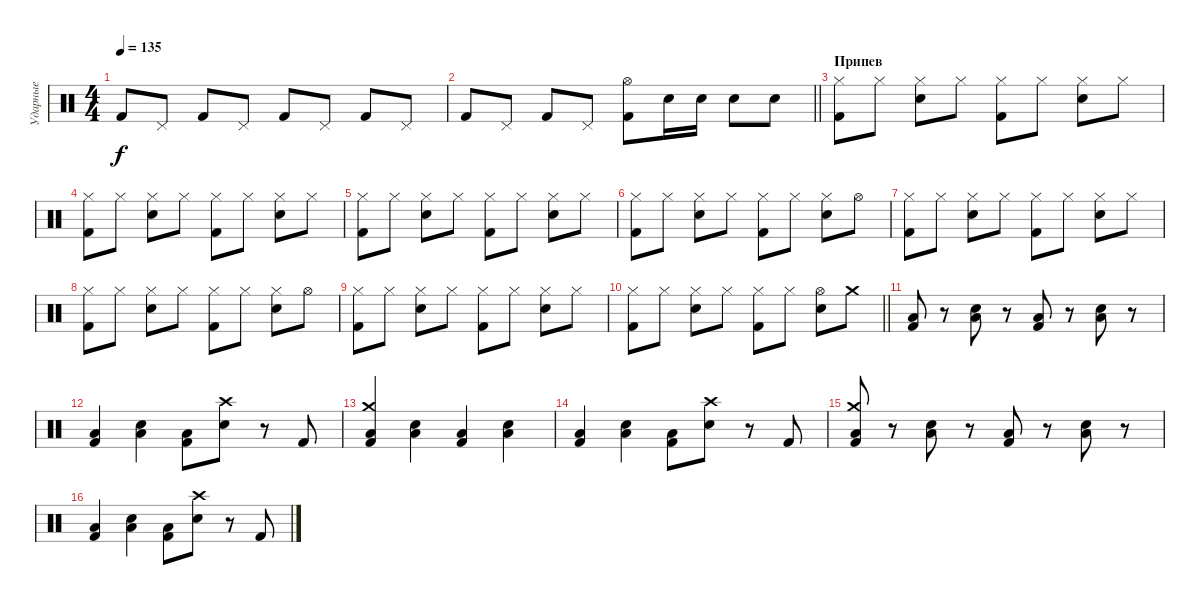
\track ("Ударные" "Ударные") {instrument percussion}
\staff {score}
\articulation defaults
\ts (4 4)
\tempo 135
\clef neutral
\ks c "Kick (hit) 2".8{dy f} "Pedal Hi-Hat (hit)".8 "Kick (hit) 2".8 "Pedal Hi-Hat (hit)".8 "Kick (hit) 2".8 "Pedal Hi-Hat (hit)".8 "Kick (hit) 2".8 "Pedal Hi-Hat (hit)".8
|
\barLineRight lightlight "Kick (hit) 2".8 "Pedal Hi-Hat (hit)".8 "Kick (hit) 2".8 "Pedal Hi-Hat (hit)".8
("Hi-Hat (open)" "Kick (hit) 2").8 "Electric Snare (hit)".16 "Electric Snare (hit)".16 "Electric Snare (hit)".8 "Electric Snare (hit)".8 |
\section ("" "Припев")
("Hi-Hat (closed)" "Kick (hit) 2").8 "Hi-Hat (closed)".8 ("Hi-Hat (closed)" "Electric Snare (hit)").8 "Hi-Hat (closed)".8 ("Hi-Hat (closed)" "Kick (hit) 2").8 "Hi-Hat (closed)".8 ("Hi-Hat (closed)" "Electric Snare (hit)").8 "Hi-Hat (closed)".8 |
("Hi-Hat (closed)" "Kick (hit) 2").8 "Hi-Hat (closed)".8 ("Hi-Hat (closed)" "Electric Snare (hit)").8 "Hi-Hat (closed)".8 ("Hi-Hat (closed)" "Kick (hit) 2").8 "Hi-Hat (closed)".8 ("Hi-Hat (closed)" "Electric Snare (hit)").8 "Hi-Hat (closed)".8 |
("Hi-Hat (closed)" "Kick (hit) 2").8 "Hi-Hat (closed)".8 ("Hi-Hat (closed)" "Electric Snare (hit)").8 "Hi-Hat (closed)".8 ("Hi-Hat (closed)" "Kick (hit) 2").8 "Hi-Hat (closed)".8 ("Hi-Hat (closed)" "Electric Snare (hit)").8 "Hi-Hat (closed)".8 |
("Hi-Hat (closed)" "Kick (hit) 2").8 "Hi-Hat (closed)".8 ("Hi-Hat (closed)" "Electric Snare (hit)").8 "Hi-Hat (closed)".8 ("Hi-Hat (closed)" "Kick (hit) 2").8 "Hi-Hat (closed)".8 ("Hi-Hat (closed)" "Electric Snare (hit)").8 "Hi-Hat (open)".8 |
("Hi-Hat (closed)" "Kick (hit) 2").8 "Hi-Hat (closed)".8 ("Hi-Hat (closed)" "Electric Snare (hit)").8 "Hi-Hat (closed)".8 ("Hi-Hat (closed)" "Kick (hit) 2").8 "Hi-Hat (closed)".8 ("Hi-Hat (closed)" "Electric Snare (hit)").8 "Hi-Hat (closed)".8 |
("Hi-Hat (closed)" "Kick (hit) 2").8 "Hi-Hat (closed)".8 ("Hi-Hat (closed)" "Electric Snare (hit)").8 "Hi-Hat (closed)".8 ("Hi-Hat (closed)" "Kick (hit) 2").8 "Hi-Hat (closed)".8 ("Hi-Hat (closed)" "Electric Snare (hit)").8 "Hi-Hat (open)".8 |
("Hi-Hat (closed)" "Kick (hit) 2").8 "Hi-Hat (closed)".8 ("Hi-Hat (closed)" "Electric Snare (hit)").8 "Hi-Hat (closed)".8 ("Hi-Hat (closed)" "Kick (hit) 2").8 "Hi-Hat (closed)".8 ("Hi-Hat (closed)" "Electric Snare (hit)").8 "Hi-Hat (closed)".8 |
\barLineRight lightlight
("Hi-Hat (closed)" "Kick (hit) 2").8 "Hi-Hat (closed)".8 ("Hi-Hat (closed)" "Electric Snare (hit)").8 "Hi-Hat (closed)".8 ("Hi-Hat (closed)" "Kick (hit) 2").8 "Hi-Hat (closed)".8 ("Hi-Hat (open)" "Electric Snare (hit)").8 "Crash medium (hit)".8 |
\section ("" "")
("Low Floor Tom (hit)" "Kick (hit) 2").8 r.8 ("Low Floor Tom (hit)" "Electric Snare (hit)").8 r.8 ("Low Floor Tom (hit)" "Kick (hit) 2").8 r.8 ("Low Floor Tom (hit)" "Electric Snare (hit)").8 r.8 |
("Low Floor Tom (hit)" "Kick (hit) 2").4 ("Low Floor Tom (hit)" "Electric Snare (hit)").4 ("Low Floor Tom (hit)" "Kick (hit) 2").8 ("Crash high (hit)" "Electric Snare (hit)").8 r.8 "Kick (hit) 2".8 |
("Crash medium (hit)" "Low Floor Tom (hit)" "Kick (hit) 2").4 ("Low Floor Tom (hit)" "Electric Snare (hit)").4 ("Low Floor Tom (hit)" "Kick (hit) 2").4 ("Low Floor Tom (hit)" "Electric Snare (hit)").4 |
("Low Floor Tom (hit)" "Kick (hit) 2").4 ("Low Floor Tom (hit)" "Electric Snare (hit)").4 ("Low Floor Tom (hit)" "Kick (hit) 2").8 ("Crash high (hit)" "Electric Snare (hit)").8 r.8 "Kick (hit) 2".8 |
("Crash medium (hit)" "Low Floor Tom (hit)" "Kick (hit) 2").8 r.8 ("Low Floor Tom (hit)" "Electric Snare (hit)").8 r.8 ("Low Floor Tom (hit)" "Kick (hit) 2").8 r.8 ("Low Floor Tom (hit)" "Electric Snare (hit)").8 r.8 |
("Low Floor Tom (hit)" "Kick (hit) 2").4 ("Low Floor Tom (hit)" "Electric Snare (hit)").4 ("Low Floor Tom (hit)" "Kick (hit) 2").8 ("Crash high (hit)" "Electric Snare (hit)").8 r.8 "Kick (hit) 2".8
